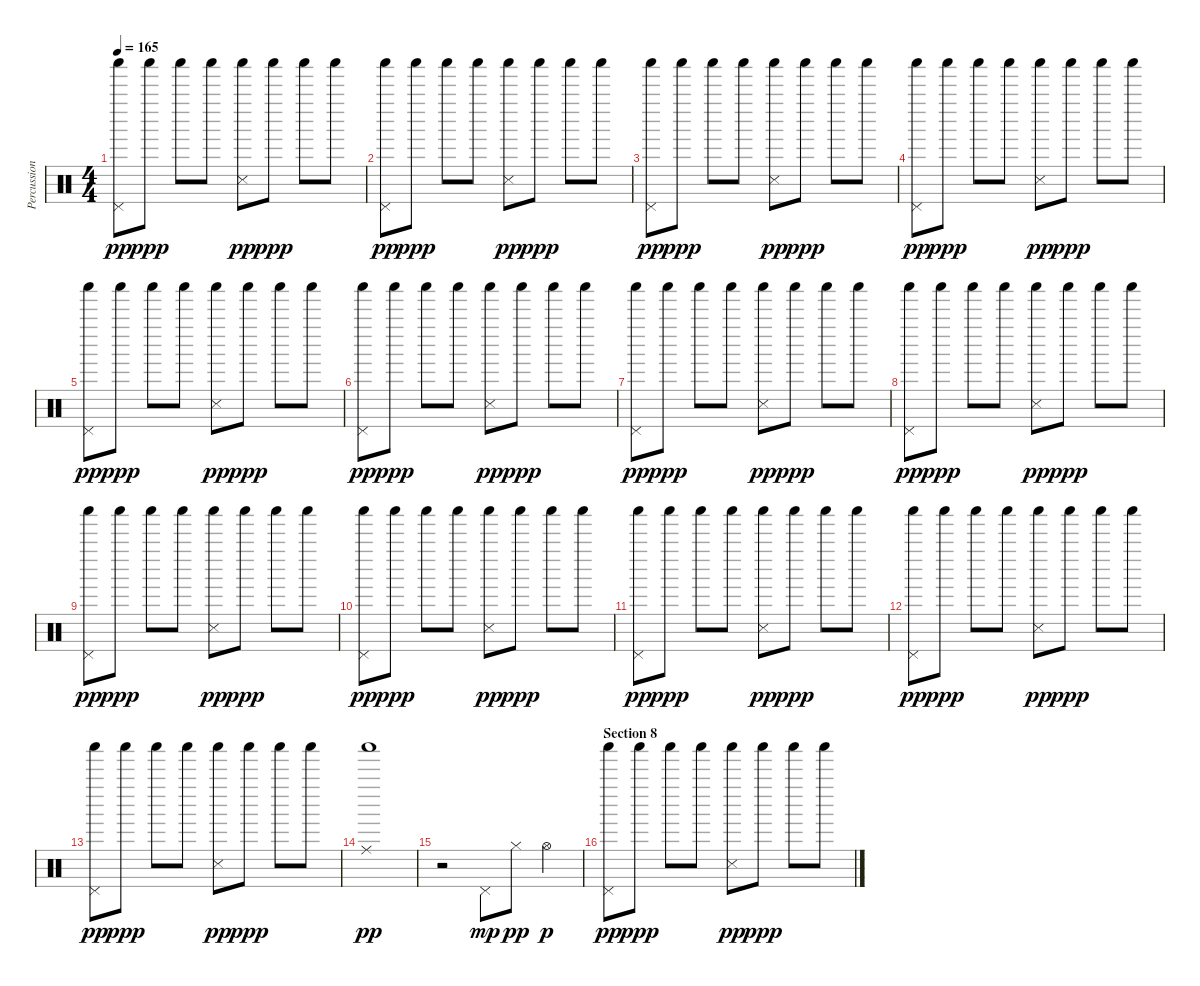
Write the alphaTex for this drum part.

\track ("Percussion" "Percussion") {instrument percussion}
\staff {score}
\articulation defaults
\ts (4 4)
\tempo 165
\clef neutral
\ks c
("Pedal Hi-Hat (hit)" "Shaker (hit)").8{dy pp} "Shaker (hit)".8{dy ppp} "Shaker (hit)".8 "Shaker (hit)".8 ("Snare (side stick) 3" "Shaker (hit)").8{dy pp} "Shaker (hit)".8{dy ppp} "Shaker (hit)".8 "Shaker (hit)".8 |
("Pedal Hi-Hat (hit)" "Shaker (hit)").8{dy pp} "Shaker (hit)".8{dy ppp} "Shaker (hit)".8 "Shaker (hit)".8 ("Snare (side stick) 3" "Shaker (hit)").8{dy pp} "Shaker (hit)".8{dy ppp} "Shaker (hit)".8 "Shaker (hit)".8 |
("Pedal Hi-Hat (hit)" "Shaker (hit)").8{dy pp} "Shaker (hit)".8{dy ppp} "Shaker (hit)".8 "Shaker (hit)".8 ("Snare (side stick) 3" "Shaker (hit)").8{dy pp} "Shaker (hit)".8{dy ppp} "Shaker (hit)".8 "Shaker (hit)".8 |
("Pedal Hi-Hat (hit)" "Shaker (hit)").8{dy pp} "Shaker (hit)".8{dy ppp} "Shaker (hit)".8 "Shaker (hit)".8 ("Snare (side stick) 3" "Shaker (hit)").8{dy pp} "Shaker (hit)".8{dy ppp} "Shaker (hit)".8 "Shaker (hit)".8 |
("Pedal Hi-Hat (hit)" "Shaker (hit)").8{dy pp} "Shaker (hit)".8{dy ppp} "Shaker (hit)".8 "Shaker (hit)".8 ("Snare (side stick) 3" "Shaker (hit)").8{dy pp} "Shaker (hit)".8{dy ppp} "Shaker (hit)".8 "Shaker (hit)".8 |
("Pedal Hi-Hat (hit)" "Shaker (hit)").8{dy pp} "Shaker (hit)".8{dy ppp} "Shaker (hit)".8 "Shaker (hit)".8 ("Snare (side stick) 3" "Shaker (hit)").8{dy pp} "Shaker (hit)".8{dy ppp} "Shaker (hit)".8 "Shaker (hit)".8 |
("Pedal Hi-Hat (hit)" "Shaker (hit)").8{dy pp} "Shaker (hit)".8{dy ppp} "Shaker (hit)".8 "Shaker (hit)".8 ("Snare (side stick) 3" "Shaker (hit)").8{dy pp} "Shaker (hit)".8{dy ppp} "Shaker (hit)".8 "Shaker (hit)".8 |
("Pedal Hi-Hat (hit)" "Shaker (hit)").8{dy pp} "Shaker (hit)".8{dy ppp} "Shaker (hit)".8 "Shaker (hit)".8 ("Snare (side stick) 3" "Shaker (hit)").8{dy pp} "Shaker (hit)".8{dy ppp} "Shaker (hit)".8 "Shaker (hit)".8 |
("Pedal Hi-Hat (hit)" "Shaker (hit)").8{dy pp} "Shaker (hit)".8{dy ppp} "Shaker (hit)".8 "Shaker (hit)".8 ("Snare (side stick) 3" "Shaker (hit)").8{dy pp} "Shaker (hit)".8{dy ppp} "Shaker (hit)".8 "Shaker (hit)".8 |
("Pedal Hi-Hat (hit)" "Shaker (hit)").8{dy pp} "Shaker (hit)".8{dy ppp} "Shaker (hit)".8 "Shaker (hit)".8 ("Snare (side stick) 3" "Shaker (hit)").8{dy pp} "Shaker (hit)".8{dy ppp} "Shaker (hit)".8 "Shaker (hit)".8 |
("Pedal Hi-Hat (hit)" "Shaker (hit)").8{dy pp} "Shaker (hit)".8{dy ppp} "Shaker (hit)".8 "Shaker (hit)".8 ("Snare (side stick) 3" "Shaker (hit)").8{dy pp} "Shaker (hit)".8{dy ppp} "Shaker (hit)".8 "Shaker (hit)".8 |
("Pedal Hi-Hat (hit)" "Shaker (hit)").8{dy pp} "Shaker (hit)".8{dy ppp} "Shaker (hit)".8 "Shaker (hit)".8 ("Snare (side stick) 3" "Shaker (hit)").8{dy pp} "Shaker (hit)".8{dy ppp} "Shaker (hit)".8 "Shaker (hit)".8 |
("Pedal Hi-Hat (hit)" "Shaker (hit)").8{dy pp} "Shaker (hit)".8{dy ppp} "Shaker (hit)".8 "Shaker (hit)".8 ("Snare (side stick) 3" "Shaker (hit)").8{dy pp} "Shaker (hit)".8{dy ppp} "Shaker (hit)".8 "Shaker (hit)".8 |
("Ride (middle)" "Shaker (hit)").1{dy pp} |
r.2 "Pedal Hi-Hat (hit)".8{dy mp} "Hi-Hat (closed)".8{dy pp} "Hi-Hat (open)".4{dy p} |
\section ("" "Section 8")
("Pedal Hi-Hat (hit)" "Shaker (hit)").8{dy pp} "Shaker (hit)".8{dy ppp} "Shaker (hit)".8 "Shaker (hit)".8 ("Snare (side stick) 3" "Shaker (hit)").8{dy pp} "Shaker (hit)".8{dy ppp} "Shaker (hit)".8 "Shaker (hit)".8
